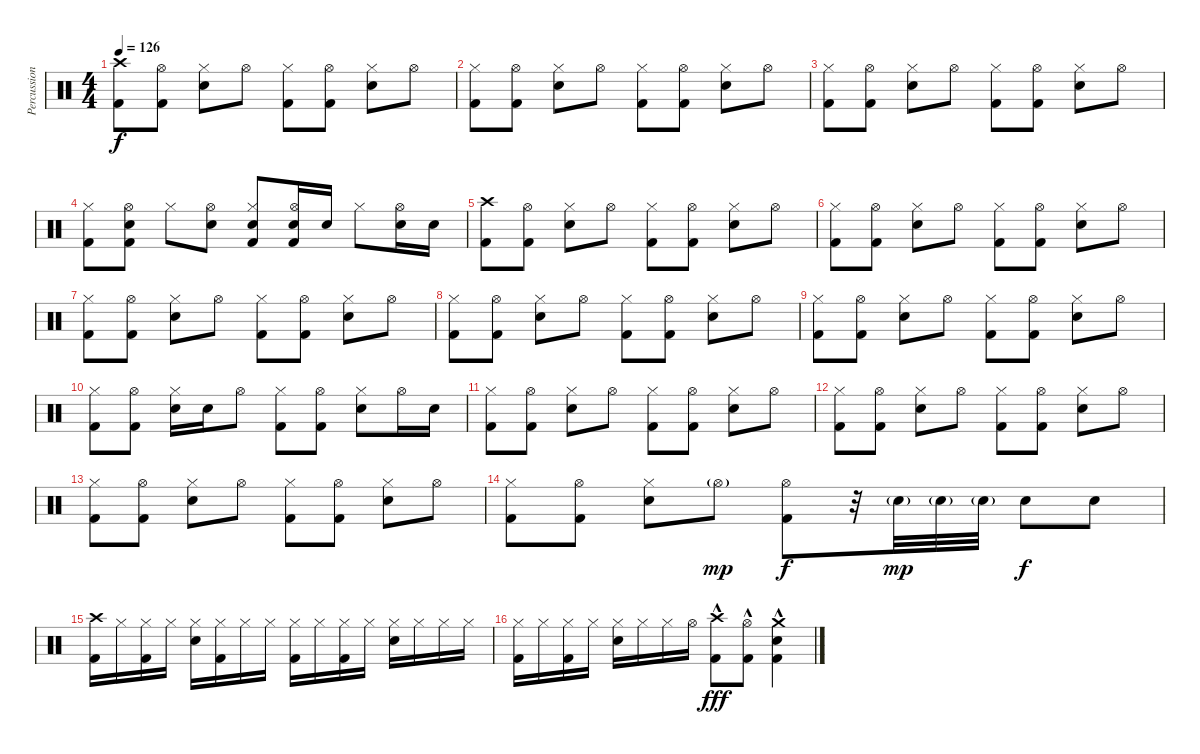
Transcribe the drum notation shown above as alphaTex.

\track ("Percussion" "Percussion") {instrument percussion}
\staff {score}
\articulation defaults
\ts (4 4)
\tempo 126
\clef neutral
\ks c
("Crash high (hit)" "Kick (hit) 2").8{dy f} ("Hi-Hat (open)" "Kick (hit) 2").8 ("Hi-Hat (closed)" "Electric Snare (hit)").8 "Hi-Hat (open)".8 ("Hi-Hat (closed)" "Kick (hit) 2").8 ("Hi-Hat (open)" "Kick (hit) 2").8 ("Hi-Hat (closed)" "Electric Snare (hit)").8 "Hi-Hat (open)".8 |
("Hi-Hat (closed)" "Kick (hit) 2").8 ("Hi-Hat (open)" "Kick (hit) 2").8 ("Hi-Hat (closed)" "Electric Snare (hit)").8 "Hi-Hat (open)".8 ("Hi-Hat (closed)" "Kick (hit) 2").8 ("Hi-Hat (open)" "Kick (hit) 2").8 ("Hi-Hat (closed)" "Electric Snare (hit)").8 "Hi-Hat (open)".8 |
("Hi-Hat (closed)" "Kick (hit) 2").8 ("Hi-Hat (open)" "Kick (hit) 2").8 ("Hi-Hat (closed)" "Electric Snare (hit)").8 "Hi-Hat (open)".8 ("Hi-Hat (closed)" "Kick (hit) 2").8 ("Hi-Hat (open)" "Kick (hit) 2").8 ("Hi-Hat (closed)" "Electric Snare (hit)").8 "Hi-Hat (open)".8 |
("Hi-Hat (closed)" "Kick (hit) 2").8 ("Hi-Hat (open)" "Electric Snare (hit)" "Kick (hit) 2").8 "Hi-Hat (closed)".8 ("Hi-Hat (open)" "Electric Snare (hit)").8 ("Hi-Hat (closed)" "Electric Snare (hit)" "Kick (hit) 2").8 ("Hi-Hat (open)" "Electric Snare (hit)" "Kick (hit) 2").16 "Electric Snare (hit)".16 "Hi-Hat (closed)".8 ("Hi-Hat (open)" "Electric Snare (hit)").16 "Electric Snare (hit)".16 |
("Crash high (hit)" "Kick (hit) 2").8 ("Hi-Hat (open)" "Kick (hit) 2").8 ("Hi-Hat (closed)" "Electric Snare (hit)").8 "Hi-Hat (open)".8 ("Hi-Hat (closed)" "Kick (hit) 2").8 ("Hi-Hat (open)" "Kick (hit) 2").8 ("Hi-Hat (closed)" "Electric Snare (hit)").8 "Hi-Hat (open)".8 |
("Hi-Hat (closed)" "Kick (hit) 2").8 ("Hi-Hat (open)" "Kick (hit) 2").8 ("Hi-Hat (closed)" "Electric Snare (hit)").8 "Hi-Hat (open)".8 ("Hi-Hat (closed)" "Kick (hit) 2").8 ("Hi-Hat (open)" "Kick (hit) 2").8 ("Hi-Hat (closed)" "Electric Snare (hit)").8 "Hi-Hat (open)".8 |
("Hi-Hat (closed)" "Kick (hit) 2").8 ("Hi-Hat (open)" "Kick (hit) 2").8 ("Hi-Hat (closed)" "Electric Snare (hit)").8 "Hi-Hat (open)".8 ("Hi-Hat (closed)" "Kick (hit) 2").8 ("Hi-Hat (open)" "Kick (hit) 2").8 ("Hi-Hat (closed)" "Electric Snare (hit)").8 "Hi-Hat (open)".8 |
("Hi-Hat (closed)" "Kick (hit) 2").8 ("Hi-Hat (open)" "Kick (hit) 2").8 ("Hi-Hat (closed)" "Electric Snare (hit)").8 "Hi-Hat (open)".8 ("Hi-Hat (closed)" "Kick (hit) 2").8 ("Hi-Hat (open)" "Kick (hit) 2").8 ("Hi-Hat (closed)" "Electric Snare (hit)").8 "Hi-Hat (open)".8 |
("Hi-Hat (closed)" "Kick (hit) 2").8 ("Hi-Hat (open)" "Kick (hit) 2").8 ("Hi-Hat (closed)" "Electric Snare (hit)").8 "Hi-Hat (open)".8 ("Hi-Hat (closed)" "Kick (hit) 2").8 ("Hi-Hat (open)" "Kick (hit) 2").8 ("Hi-Hat (closed)" "Electric Snare (hit)").8 "Hi-Hat (open)".8 |
("Hi-Hat (closed)" "Kick (hit) 2").8 ("Hi-Hat (open)" "Kick (hit) 2").8 ("Hi-Hat (closed)" "Electric Snare (hit)").16 "Electric Snare (hit)".16 "Hi-Hat (open)".8 ("Hi-Hat (closed)" "Kick (hit) 2").8 ("Hi-Hat (open)" "Kick (hit) 2").8 ("Hi-Hat (closed)" "Electric Snare (hit)").8 "Hi-Hat (open)".16 "Electric Snare (hit)".16 |
("Hi-Hat (closed)" "Kick (hit) 2").8 ("Hi-Hat (open)" "Kick (hit) 2").8 ("Hi-Hat (closed)" "Electric Snare (hit)").8 "Hi-Hat (open)".8 ("Hi-Hat (closed)" "Kick (hit) 2").8 ("Hi-Hat (open)" "Kick (hit) 2").8 ("Hi-Hat (closed)" "Electric Snare (hit)").8 "Hi-Hat (open)".8 |
("Hi-Hat (closed)" "Kick (hit) 2").8 ("Hi-Hat (open)" "Kick (hit) 2").8 ("Hi-Hat (closed)" "Electric Snare (hit)").8 "Hi-Hat (open)".8 ("Hi-Hat (closed)" "Kick (hit) 2").8 ("Hi-Hat (open)" "Kick (hit) 2").8 ("Hi-Hat (closed)" "Electric Snare (hit)").8 "Hi-Hat (open)".8 |
("Hi-Hat (closed)" "Kick (hit) 2").8 ("Hi-Hat (open)" "Kick (hit) 2").8 ("Hi-Hat (closed)" "Electric Snare (hit)").8 "Hi-Hat (open)".8 ("Hi-Hat (closed)" "Kick (hit) 2").8 ("Hi-Hat (open)" "Kick (hit) 2").8 ("Hi-Hat (closed)" "Electric Snare (hit)").8 "Hi-Hat (open)".8 |
("Hi-Hat (closed)" "Kick (hit) 2").8{beam merge} ("Hi-Hat (open)" "Kick (hit) 2").8 ("Hi-Hat (closed)" "Electric Snare (hit)").8 "Hi-Hat (open)"{g}.8{dy mp} ("Hi-Hat (open)" "Kick (hit) 2").8{dy f} r.32 "Electric Snare (hit)"{g}.32{dy mp} "Electric Snare (hit)"{g}.32 "Electric Snare (hit)"{g}.32 "Electric Snare (hit)".8{dy f} "Electric Snare (hit)".8 |
("Crash high (hit)" "Kick (hit) 2").16 "Hi-Hat (closed)".16 ("Hi-Hat (closed)" "Kick (hit) 2").16 "Hi-Hat (closed)".16 ("Hi-Hat (closed)" "Electric Snare (hit)").16 ("Hi-Hat (closed)" "Kick (hit) 2").16 "Hi-Hat (closed)".16 "Hi-Hat (closed)".16 ("Hi-Hat (closed)" "Kick (hit) 2").16 "Hi-Hat (closed)".16 ("Hi-Hat (closed)" "Kick (hit) 2").16 "Hi-Hat (closed)".16 ("Hi-Hat (closed)" "Electric Snare (hit)").16 "Hi-Hat (closed)".16 "Hi-Hat (closed)".16 "Hi-Hat (closed)".16 |
("Hi-Hat (closed)" "Kick (hit) 2").16 "Hi-Hat (closed)".16 ("Hi-Hat (closed)" "Kick (hit) 2").16 "Hi-Hat (closed)".16 ("Hi-Hat (closed)" "Electric Snare (hit)").16 "Hi-Hat (closed)".16 "Hi-Hat (closed)".16 "Hi-Hat (open)".16 ("Crash high (hit)"{hac} "Kick (hit) 2").8{dy fff} ("Hi-Hat (open)"{hac} "Kick (hit) 2").8 ("Crash medium (hit)"{hac} "Electric Snare (hit)"{hac} "Kick (hit) 2").4
